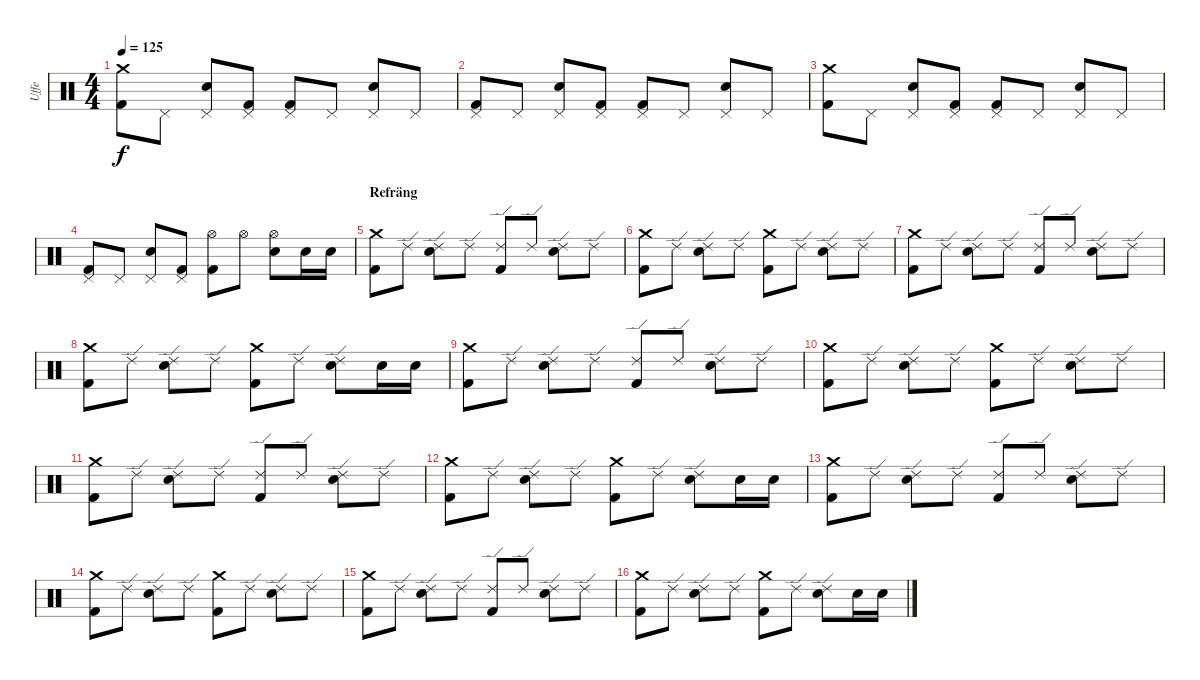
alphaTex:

\track ("Uffe" "Uffe") {instrument percussion}
\staff {score}
\articulation defaults
\ts (4 4)
\tempo 125
\clef neutral
\ks c
("Crash medium (hit)" "Kick (hit) 2").8{dy f} "Pedal Hi-Hat (hit)".8 ("Pedal Hi-Hat (hit)" "Electric Snare (hit)").8 ("Pedal Hi-Hat (hit)" "Kick (hit) 2").8 ("Pedal Hi-Hat (hit)" "Kick (hit) 2").8 "Pedal Hi-Hat (hit)".8 ("Pedal Hi-Hat (hit)" "Electric Snare (hit)").8 "Pedal Hi-Hat (hit)".8 |
("Pedal Hi-Hat (hit)" "Kick (hit) 2").8 "Pedal Hi-Hat (hit)".8 ("Pedal Hi-Hat (hit)" "Electric Snare (hit)").8 ("Pedal Hi-Hat (hit)" "Kick (hit) 2").8 ("Pedal Hi-Hat (hit)" "Kick (hit) 2").8 "Pedal Hi-Hat (hit)".8 ("Pedal Hi-Hat (hit)" "Electric Snare (hit)").8 "Pedal Hi-Hat (hit)".8 |
("Crash medium (hit)" "Kick (hit) 2").8 "Pedal Hi-Hat (hit)".8 ("Pedal Hi-Hat (hit)" "Electric Snare (hit)").8 ("Pedal Hi-Hat (hit)" "Kick (hit) 2").8 ("Pedal Hi-Hat (hit)" "Kick (hit) 2").8 "Pedal Hi-Hat (hit)".8 ("Pedal Hi-Hat (hit)" "Electric Snare (hit)").8 "Pedal Hi-Hat (hit)".8 |
("Pedal Hi-Hat (hit)" "Kick (hit) 2").8 "Pedal Hi-Hat (hit)".8 ("Pedal Hi-Hat (hit)" "Electric Snare (hit)").8 ("Pedal Hi-Hat (hit)" "Kick (hit) 2").8 ("Hi-Hat (open)" "Kick (hit) 2").8 "Hi-Hat (open)".8 ("Hi-Hat (open)" "Electric Snare (hit)").8 "Electric Snare (hit)".16 "Electric Snare (hit)".16 |
\section ("" "Refräng")
("Crash medium (hit)" "Kick (hit) 2").8 "Ride (edge) 2".8 ("Ride (edge) 2" "Electric Snare (hit)").8 "Ride (edge) 2".8 ("Ride (edge) 2" "Kick (hit) 2").8 "Ride (edge) 2".8 ("Ride (edge) 2" "Electric Snare (hit)").8 "Ride (edge) 2".8 |
("Crash medium (hit)" "Kick (hit) 2").8 "Ride (edge) 2".8 ("Ride (edge) 2" "Electric Snare (hit)").8 "Ride (edge) 2".8 ("Crash medium (hit)" "Kick (hit) 2").8 "Ride (edge) 2".8 ("Ride (edge) 2" "Electric Snare (hit)").8 "Ride (edge) 2".8 |
("Crash medium (hit)" "Kick (hit) 2").8 "Ride (edge) 2".8 ("Ride (edge) 2" "Electric Snare (hit)").8 "Ride (edge) 2".8 ("Ride (edge) 2" "Kick (hit) 2").8 "Ride (edge) 2".8 ("Ride (edge) 2" "Electric Snare (hit)").8 "Ride (edge) 2".8 |
("Crash medium (hit)" "Kick (hit) 2").8 "Ride (edge) 2".8 ("Ride (edge) 2" "Electric Snare (hit)").8 "Ride (edge) 2".8 ("Crash medium (hit)" "Kick (hit) 2").8 "Ride (edge) 2".8 ("Ride (edge) 2" "Electric Snare (hit)").8 "Electric Snare (hit)".16 "Electric Snare (hit)".16 |
("Crash medium (hit)" "Kick (hit) 2").8 "Ride (edge) 2".8 ("Ride (edge) 2" "Electric Snare (hit)").8 "Ride (edge) 2".8 ("Ride (edge) 2" "Kick (hit) 2").8 "Ride (edge) 2".8 ("Ride (edge) 2" "Electric Snare (hit)").8 "Ride (edge) 2".8 |
("Crash medium (hit)" "Kick (hit) 2").8 "Ride (edge) 2".8 ("Ride (edge) 2" "Electric Snare (hit)").8 "Ride (edge) 2".8 ("Crash medium (hit)" "Kick (hit) 2").8 "Ride (edge) 2".8 ("Ride (edge) 2" "Electric Snare (hit)").8 "Ride (edge) 2".8 |
("Crash medium (hit)" "Kick (hit) 2").8 "Ride (edge) 2".8 ("Ride (edge) 2" "Electric Snare (hit)").8 "Ride (edge) 2".8 ("Ride (edge) 2" "Kick (hit) 2").8 "Ride (edge) 2".8 ("Ride (edge) 2" "Electric Snare (hit)").8 "Ride (edge) 2".8 |
("Crash medium (hit)" "Kick (hit) 2").8 "Ride (edge) 2".8 ("Ride (edge) 2" "Electric Snare (hit)").8 "Ride (edge) 2".8 ("Crash medium (hit)" "Kick (hit) 2").8 "Ride (edge) 2".8 ("Ride (edge) 2" "Electric Snare (hit)").8 "Electric Snare (hit)".16 "Electric Snare (hit)".16 |
("Crash medium (hit)" "Kick (hit) 2").8 "Ride (edge) 2".8 ("Ride (edge) 2" "Electric Snare (hit)").8 "Ride (edge) 2".8 ("Ride (edge) 2" "Kick (hit) 2").8 "Ride (edge) 2".8 ("Ride (edge) 2" "Electric Snare (hit)").8 "Ride (edge) 2".8 |
("Crash medium (hit)" "Kick (hit) 2").8 "Ride (edge) 2".8 ("Ride (edge) 2" "Electric Snare (hit)").8 "Ride (edge) 2".8 ("Crash medium (hit)" "Kick (hit) 2").8 "Ride (edge) 2".8 ("Ride (edge) 2" "Electric Snare (hit)").8 "Ride (edge) 2".8 |
("Crash medium (hit)" "Kick (hit) 2").8 "Ride (edge) 2".8 ("Ride (edge) 2" "Electric Snare (hit)").8 "Ride (edge) 2".8 ("Ride (edge) 2" "Kick (hit) 2").8 "Ride (edge) 2".8 ("Ride (edge) 2" "Electric Snare (hit)").8 "Ride (edge) 2".8 |
("Crash medium (hit)" "Kick (hit) 2").8 "Ride (edge) 2".8 ("Ride (edge) 2" "Electric Snare (hit)").8 "Ride (edge) 2".8 ("Crash medium (hit)" "Kick (hit) 2").8 "Ride (edge) 2".8 ("Ride (edge) 2" "Electric Snare (hit)").8 "Electric Snare (hit)".16 "Electric Snare (hit)".16
